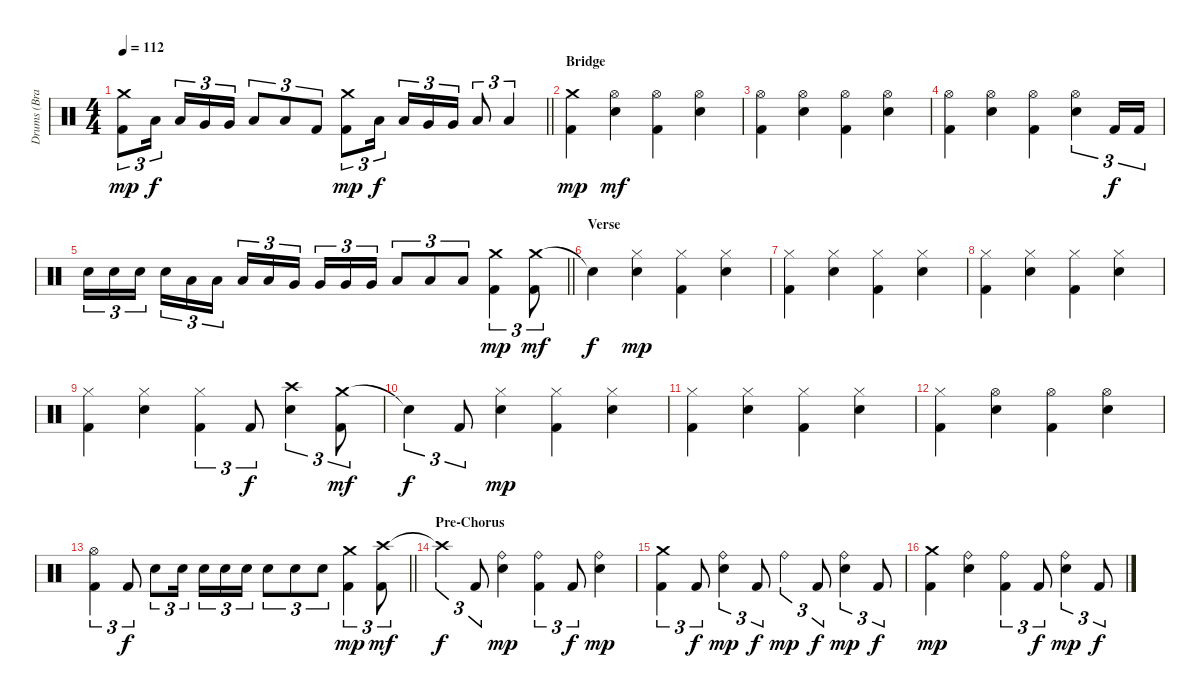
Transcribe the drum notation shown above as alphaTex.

\track ("Drums (Brandon Saller)" "Drums (Bra") {instrument percussion}
\staff {score}
\articulation defaults
\ts (4 4)
\tempo 112
\clef neutral
\barLineRight lightlight
\ks c
("Crash medium (hit)" "Kick (hit) 2").8{tu (3 2) dy mp} "Low Tom (hit)".16{tu (3 2) dy f beam splitsecondary} "Low Tom (hit)".16{tu (3 2)} "Very Low Tom (hit)".16{tu (3 2)} "Very Low Tom (hit)".16{tu (3 2)} "Low Floor Tom (hit)".8{tu (3 2)} "Low Floor Tom (hit)".8{tu (3 2)} "Kick (hit) 2".8{tu (3 2)} ("Crash medium (hit)" "Kick (hit) 2").8{tu (3 2) dy mp} "Low Tom (hit)".16{tu (3 2) dy f beam splitsecondary} "Low Tom (hit)".16{tu (3 2)} "Very Low Tom (hit)".16{tu (3 2)} "Very Low Tom (hit)".16{tu (3 2)} "Low Floor Tom (hit)".8{tu (3 2)} "Low Floor Tom (hit)".4{tu (3 2)} |
\section ("" "Bridge")
("Crash medium (hit)" "Kick (hit) 2").4{dy mp} ("Hi-Hat (open)" "Electric Snare (hit)").4{dy mf} ("Hi-Hat (open)" "Kick (hit) 2").4 ("Hi-Hat (open)" "Electric Snare (hit)").4 |
("Hi-Hat (open)" "Kick (hit) 2").4 ("Hi-Hat (open)" "Electric Snare (hit)").4 ("Hi-Hat (open)" "Kick (hit) 2").4 ("Hi-Hat (open)" "Electric Snare (hit)").4 |
("Hi-Hat (open)" "Kick (hit) 2").4 ("Hi-Hat (open)" "Electric Snare (hit)").4 ("Hi-Hat (open)" "Kick (hit) 2").4 ("Hi-Hat (open)" "Electric Snare (hit)").4{tu (3 2)} "Kick (hit) 2".16{tu (3 2) dy f} "Kick (hit) 2".16{tu (3 2)} |
\barLineRight lightlight "Electric Snare (hit)".16{tu (3 2)} "Electric Snare (hit)".16{tu (3 2)} "Electric Snare (hit)".16{tu (3 2) beam splitsecondary} "Electric Snare (hit)".16{tu (3 2)} "Low Tom (hit)".16{tu (3 2)} "Low Tom (hit)".16{tu (3 2)} "Low Tom (hit)".16{tu (3 2)} "Low Tom (hit)".16{tu (3 2)} "Very Low Tom (hit)".16{tu (3 2) beam splitsecondary} "Very Low Tom (hit)".16{tu (3 2)} "Very Low Tom (hit)".16{tu (3 2)} "Very Low Tom (hit)".16{tu (3 2)} "Low Floor Tom (hit)".8{tu (3 2)} "Low Floor Tom (hit)".8{tu (3 2)} "Low Floor Tom (hit)".8{tu (3 2)}
("Crash medium (hit)" "Kick (hit) 2").4{tu (3 2) dy mp} ("Crash medium (hit)" "Kick (hit) 2").8{tu (3 2) dy mf} |
\section ("" "Verse")
"Snare (hit)"{t}.4{dy f} ("Hi-Hat (closed)" "Electric Snare (hit)").4{dy mp} ("Hi-Hat (closed)" "Kick (hit) 2").4 ("Hi-Hat (closed)" "Electric Snare (hit)").4 |
("Hi-Hat (closed)" "Kick (hit) 2").4 ("Hi-Hat (closed)" "Electric Snare (hit)").4 ("Hi-Hat (closed)" "Kick (hit) 2").4 ("Hi-Hat (closed)" "Electric Snare (hit)").4 |
("Hi-Hat (closed)" "Kick (hit) 2").4 ("Hi-Hat (closed)" "Electric Snare (hit)").4 ("Hi-Hat (closed)" "Kick (hit) 2").4 ("Hi-Hat (closed)" "Electric Snare (hit)").4 |
("Hi-Hat (closed)" "Kick (hit) 2").4 ("Hi-Hat (closed)" "Electric Snare (hit)").4 ("Hi-Hat (closed)" "Kick (hit) 2").4{tu (3 2)} "Kick (hit) 2".8{tu (3 2) dy f} ("Crash high (hit)" "Electric Snare (hit)").4{tu (3 2)} ("Crash medium (hit)" "Kick (hit) 2").8{tu (3 2) dy mf} |
"Snare (hit)"{t}.4{tu (3 2) dy f} "Kick (hit) 2".8{tu (3 2)} ("Hi-Hat (closed)" "Electric Snare (hit)").4{dy mp} ("Hi-Hat (closed)" "Kick (hit) 2").4 ("Hi-Hat (closed)" "Electric Snare (hit)").4 |
("Hi-Hat (closed)" "Kick (hit) 2").4 ("Hi-Hat (closed)" "Electric Snare (hit)").4 ("Hi-Hat (closed)" "Kick (hit) 2").4 ("Hi-Hat (closed)" "Electric Snare (hit)").4 |
("Hi-Hat (closed)" "Kick (hit) 2").4 ("Hi-Hat (open)" "Electric Snare (hit)").4 ("Hi-Hat (open)" "Kick (hit) 2").4 ("Hi-Hat (open)" "Electric Snare (hit)").4 |
\barLineRight lightlight
("Hi-Hat (open)" "Kick (hit) 2").4{tu (3 2)} "Kick (hit) 2".8{tu (3 2) dy f} "Electric Snare (hit)".8{tu (3 2)} "Electric Snare (hit)".16{tu (3 2) beam splitsecondary} "Electric Snare (hit)".16{tu (3 2)} "Electric Snare (hit)".16{tu (3 2)} "Electric Snare (hit)".16{tu (3 2)} "Electric Snare (hit)".8{tu (3 2)} "Electric Snare (hit)".8{tu (3 2)} "Electric Snare (hit)".8{tu (3 2)} ("Crash medium (hit)" "Kick (hit) 2").4{tu (3 2) dy mp} ("Crash high (hit)" "Kick (hit) 2").8{tu (3 2) dy mf} |
\section ("" "Pre-Chorus")
"Crash high (hit)"{t}.4{tu (3 2) dy f} "Kick (hit) 2".8{tu (3 2)} ("Ride (bell)" "Electric Snare (hit)").4{dy mp} ("Ride (bell)" "Kick (hit) 2").4{tu (3 2)} "Kick (hit) 2".8{tu (3 2) dy f} ("Ride (bell)" "Electric Snare (hit)").4{dy mp} |
("Crash medium (hit)" "Kick (hit) 2").4{tu (3 2)} "Kick (hit) 2".8{tu (3 2) dy f} ("Ride (bell)" "Electric Snare (hit)").4{tu (3 2) dy mp} "Kick (hit) 2".8{tu (3 2) dy f} "Ride (bell)".4{tu (3 2) dy mp} "Kick (hit) 2".8{tu (3 2) dy f} ("Ride (bell)" "Electric Snare (hit)").4{tu (3 2) dy mp} "Kick (hit) 2".8{tu (3 2) dy f} |
("Crash medium (hit)" "Kick (hit) 2").4{dy mp} ("Ride (bell)" "Electric Snare (hit)").4 ("Ride (bell)" "Kick (hit) 2").4{tu (3 2)} "Kick (hit) 2".8{tu (3 2) dy f} ("Ride (bell)" "Electric Snare (hit)").4{tu (3 2) dy mp} "Kick (hit) 2".8{tu (3 2) dy f}
